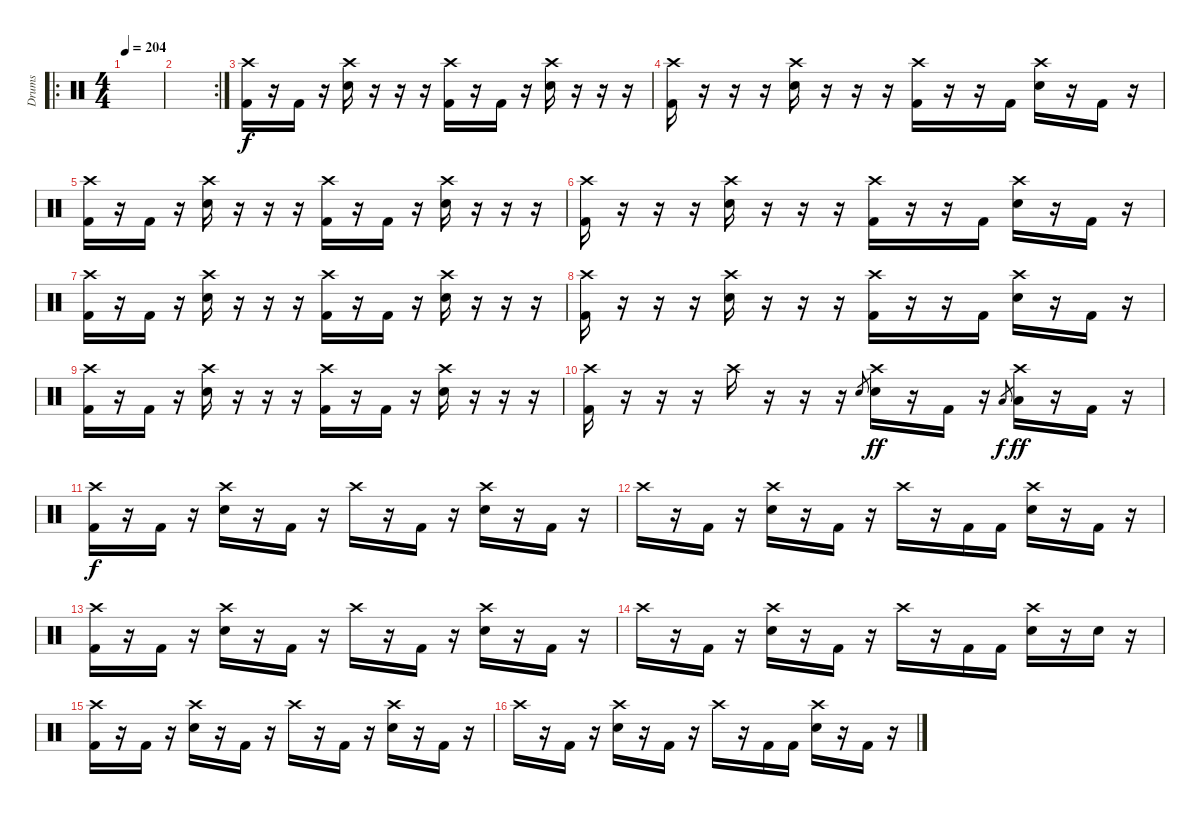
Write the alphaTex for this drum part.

\track ("Drums" "Drums") {instrument percussion}
\staff {score}
\articulation defaults
\ro
\ts (4 4)
\tempo 204
\clef neutral
\ks c
|
\rc 2
|
("Crash high (hit)" "Kick (hit) 2").16 r.16 "Kick (hit) 2".16 r.16 ("Crash high (hit)" "Snare (hit) 2").16 r.16 r.16 r.16 ("Crash high (hit)" "Kick (hit) 2").16 r.16 "Kick (hit) 2".16 r.16 ("Crash high (hit)" "Snare (hit) 2").16 r.16 r.16 r.16 |
("Crash high (hit)" "Kick (hit) 2").16 r.16 r.16 r.16 ("Crash high (hit)" "Snare (hit) 2").16 r.16 r.16 r.16 ("Crash high (hit)" "Kick (hit) 2").16 r.16 r.16 "Kick (hit) 2".16 ("Crash high (hit)" "Snare (hit) 2").16 r.16 "Kick (hit) 2".16 r.16 |
("Crash high (hit)" "Kick (hit) 2").16 r.16 "Kick (hit) 2".16 r.16 ("Crash high (hit)" "Snare (hit) 2").16 r.16 r.16 r.16 ("Crash high (hit)" "Kick (hit) 2").16 r.16 "Kick (hit) 2".16 r.16 ("Crash high (hit)" "Snare (hit) 2").16 r.16 r.16 r.16 |
("Crash high (hit)" "Kick (hit) 2").16 r.16 r.16 r.16 ("Crash high (hit)" "Snare (hit) 2").16 r.16 r.16 r.16 ("Crash high (hit)" "Kick (hit) 2").16 r.16 r.16 "Kick (hit) 2".16 ("Crash high (hit)" "Snare (hit) 2").16 r.16 "Kick (hit) 2".16 r.16 |
("Crash high (hit)" "Kick (hit) 2").16 r.16 "Kick (hit) 2".16 r.16 ("Crash high (hit)" "Snare (hit) 2").16 r.16 r.16 r.16 ("Crash high (hit)" "Kick (hit) 2").16 r.16 "Kick (hit) 2".16 r.16 ("Crash high (hit)" "Snare (hit) 2").16 r.16 r.16 r.16 |
("Crash high (hit)" "Kick (hit) 2").16 r.16 r.16 r.16 ("Crash high (hit)" "Snare (hit) 2").16 r.16 r.16 r.16 ("Crash high (hit)" "Kick (hit) 2").16 r.16 r.16 "Kick (hit) 2".16 ("Crash high (hit)" "Snare (hit) 2").16 r.16 "Kick (hit) 2".16 r.16 |
("Crash high (hit)" "Kick (hit) 2").16 r.16 "Kick (hit) 2".16 r.16 ("Crash high (hit)" "Snare (hit) 2").16 r.16 r.16 r.16 ("Crash high (hit)" "Kick (hit) 2").16 r.16 "Kick (hit) 2".16 r.16 ("Crash high (hit)" "Snare (hit) 2").16 r.16 r.16 r.16 |
("Crash high (hit)" "Kick (hit) 2").16 r.16 r.16 r.16 "Crash high (hit)".16 r.16 r.16 r.16 "Snare (hit) 2".8{gr} ("Crash high (hit)" "Snare (hit) 2").16{dy ff} r.16 "Kick (hit) 2".16 r.16 "Low Tom (hit)".8{gr dy f} ("Crash high (hit)" "Low Tom (hit)").16{dy ff} r.16 "Kick (hit) 2".16 r.16 |
("Crash high (hit)" "Kick (hit) 2").16{dy f} r.16 "Kick (hit) 2".16 r.16 ("Crash high (hit)" "Snare (hit) 2").16 r.16 "Kick (hit) 2".16 r.16 "Crash high (hit)".16 r.16 "Kick (hit) 2".16 r.16 ("Crash high (hit)" "Snare (hit) 2").16 r.16 "Kick (hit) 2".16 r.16 |
"Crash high (hit)".16 r.16 "Kick (hit) 2".16 r.16 ("Crash high (hit)" "Snare (hit) 2").16 r.16 "Kick (hit) 2".16 r.16 "Crash high (hit)".16 r.16 "Kick (hit) 2".16 "Kick (hit) 2".16 ("Crash high (hit)" "Snare (hit) 2").16 r.16 "Kick (hit) 2".16 r.16 |
("Crash high (hit)" "Kick (hit) 2").16 r.16 "Kick (hit) 2".16 r.16 ("Crash high (hit)" "Snare (hit) 2").16 r.16 "Kick (hit) 2".16 r.16 "Crash high (hit)".16 r.16 "Kick (hit) 2".16 r.16 ("Crash high (hit)" "Snare (hit) 2").16 r.16 "Kick (hit) 2".16 r.16 |
"Crash high (hit)".16 r.16 "Kick (hit) 2".16 r.16 ("Crash high (hit)" "Snare (hit) 2").16 r.16 "Kick (hit) 2".16 r.16 "Crash high (hit)".16 r.16 "Kick (hit) 2".16 "Kick (hit) 2".16 ("Crash high (hit)" "Snare (hit) 2").16 r.16 "Snare (hit) 2".16 r.16 |
("Crash high (hit)" "Kick (hit) 2").16 r.16 "Kick (hit) 2".16 r.16 ("Crash high (hit)" "Snare (hit) 2").16 r.16 "Kick (hit) 2".16 r.16 "Crash high (hit)".16 r.16 "Kick (hit) 2".16 r.16 ("Crash high (hit)" "Snare (hit) 2").16 r.16 "Kick (hit) 2".16 r.16 |
"Crash high (hit)".16 r.16 "Kick (hit) 2".16 r.16 ("Crash high (hit)" "Snare (hit) 2").16 r.16 "Kick (hit) 2".16 r.16 "Crash high (hit)".16 r.16 "Kick (hit) 2".16 "Kick (hit) 2".16 ("Crash high (hit)" "Snare (hit) 2").16 r.16 "Kick (hit) 2".16 r.16
